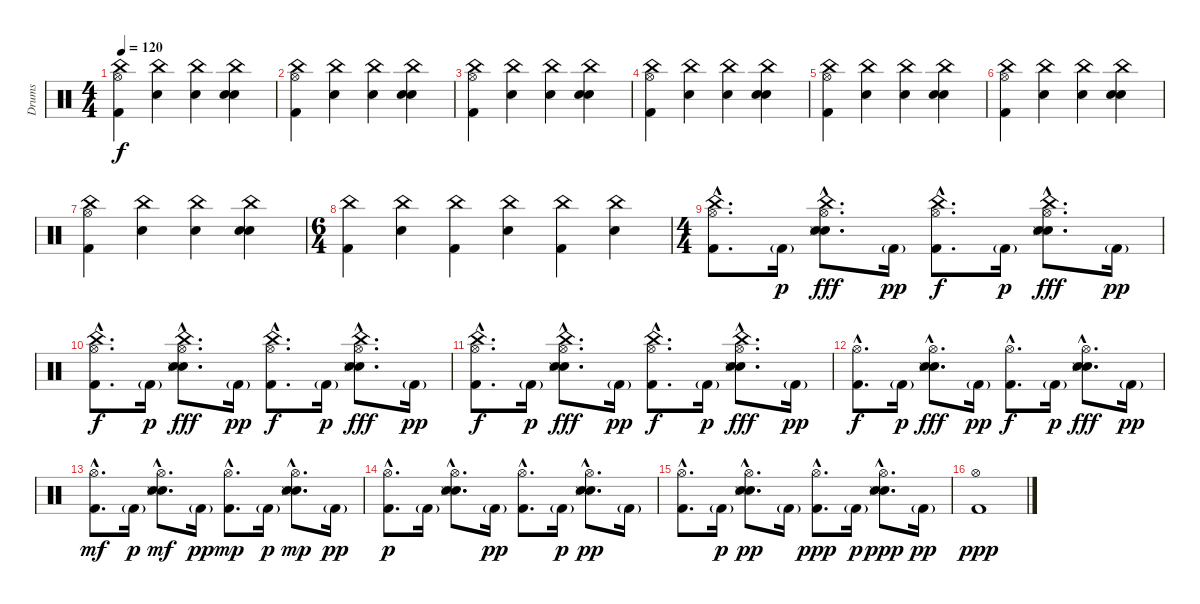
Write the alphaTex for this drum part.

\track ("Drums" "Drums") {instrument percussion}
\staff {score}
\articulation defaults
\ts (4 4)
\tempo 120
\clef neutral
\ks c
("China (hit)" "Kick (hit) 2" "Hi-Hat (open)").4{dy f} ("China (hit)" "Electric Snare (hit)").4 ("China (hit)" "Electric Snare (hit)").4 ("China (hit)" "Electric Snare (hit)" "Hand Clap (hit)").4 |
("China (hit)" "Kick (hit) 2" "Hi-Hat (open)").4 ("China (hit)" "Electric Snare (hit)").4 ("China (hit)" "Electric Snare (hit)").4 ("China (hit)" "Electric Snare (hit)" "Hand Clap (hit)").4 |
("China (hit)" "Kick (hit) 2" "Hi-Hat (open)").4 ("China (hit)" "Electric Snare (hit)").4 ("China (hit)" "Electric Snare (hit)").4 ("China (hit)" "Electric Snare (hit)" "Hand Clap (hit)").4 |
("China (hit)" "Kick (hit) 2" "Hi-Hat (open)").4 ("China (hit)" "Electric Snare (hit)").4 ("China (hit)" "Electric Snare (hit)").4 ("China (hit)" "Electric Snare (hit)" "Hand Clap (hit)").4 |
("China (hit)" "Kick (hit) 2" "Hi-Hat (open)").4 ("China (hit)" "Electric Snare (hit)").4 ("China (hit)" "Electric Snare (hit)").4 ("China (hit)" "Electric Snare (hit)" "Hand Clap (hit)").4 |
("China (hit)" "Kick (hit) 2" "Hi-Hat (open)").4 ("China (hit)" "Electric Snare (hit)").4 ("China (hit)" "Electric Snare (hit)").4 ("China (hit)" "Electric Snare (hit)" "Hand Clap (hit)").4 |
("China (hit)" "Kick (hit) 2" "Hi-Hat (open)").4 ("China (hit)" "Electric Snare (hit)").4 ("China (hit)" "Electric Snare (hit)").4 ("China (hit)" "Electric Snare (hit)" "Hand Clap (hit)").4 |
\ts (6 4)
("China (hit)" "Kick (hit) 2").4 ("China (hit)" "Electric Snare (hit)").4 ("China (hit)" "Kick (hit) 2").4 ("China (hit)" "Electric Snare (hit)").4 ("China (hit)" "Kick (hit) 2").4 ("China (hit)" "Electric Snare (hit)").4 |
\ts (4 4)
("Kick (hit) 2"{hac} "Hi-Hat (open)"{hac} "China (hit)"{hac}).8{d} "Kick (hit) 2"{g}.16{dy p} ("Hand Clap (hit)"{hac} "Electric Snare (hit)"{hac} "Hi-Hat (open)"{hac} "Snare (side stick) 3"{hac} "China (hit)"{hac}).8{d dy fff} "Kick (hit) 2"{g}.16{dy pp} ("Kick (hit) 2"{hac} "Hi-Hat (open)"{hac} "China (hit)"{hac}).8{d dy f} "Kick (hit) 2"{g}.16{dy p} ("Hand Clap (hit)"{hac} "Electric Snare (hit)"{hac} "Hi-Hat (open)"{hac} "Snare (side stick) 3"{hac} "China (hit)"{hac}).8{d dy fff} "Kick (hit) 2"{g}.16{dy pp} |
("Kick (hit) 2"{hac} "Hi-Hat (open)"{hac} "China (hit)"{hac}).8{d dy f} "Kick (hit) 2"{g}.16{dy p} ("Hand Clap (hit)"{hac} "Electric Snare (hit)"{hac} "Hi-Hat (open)"{hac} "Snare (side stick) 3"{hac} "China (hit)"{hac}).8{d dy fff} "Kick (hit) 2"{g}.16{dy pp} ("Kick (hit) 2"{hac} "Hi-Hat (open)"{hac} "China (hit)"{hac}).8{d dy f} "Kick (hit) 2"{g}.16{dy p} ("Hand Clap (hit)"{hac} "Electric Snare (hit)"{hac} "Hi-Hat (open)"{hac} "Snare (side stick) 3"{hac} "China (hit)"{hac}).8{d dy fff} "Kick (hit) 2"{g}.16{dy pp} |
("Kick (hit) 2"{hac} "Hi-Hat (open)"{hac} "China (hit)"{hac}).8{d dy f} "Kick (hit) 2"{g}.16{dy p} ("Hand Clap (hit)"{hac} "Electric Snare (hit)"{hac} "Hi-Hat (open)"{hac} "Snare (side stick) 3"{hac} "China (hit)"{hac}).8{d dy fff} "Kick (hit) 2"{g}.16{dy pp} ("Kick (hit) 2"{hac} "Hi-Hat (open)"{hac} "China (hit)"{hac}).8{d dy f} "Kick (hit) 2"{g}.16{dy p} ("Hand Clap (hit)"{hac} "Electric Snare (hit)"{hac} "Hi-Hat (open)"{hac} "Snare (side stick) 3"{hac} "China (hit)"{hac}).8{d dy fff} "Kick (hit) 2"{g}.16{dy pp} |
("Kick (hit) 2"{hac} "Hi-Hat (open)"{hac}).8{d dy f} "Kick (hit) 2"{g}.16{dy p} ("Hand Clap (hit)"{hac} "Electric Snare (hit)"{hac} "Hi-Hat (open)"{hac} "Snare (side stick) 3"{hac}).8{d dy fff} "Kick (hit) 2"{g}.16{dy pp} ("Kick (hit) 2"{hac} "Hi-Hat (open)"{hac}).8{d dy f} "Kick (hit) 2"{g}.16{dy p} ("Hand Clap (hit)"{hac} "Electric Snare (hit)"{hac} "Hi-Hat (open)"{hac} "Snare (side stick) 3"{hac}).8{d dy fff} "Kick (hit) 2"{g}.16{dy pp} |
("Kick (hit) 2"{hac} "Hi-Hat (open)"{hac}).8{d dy mf} "Kick (hit) 2"{g}.16{dy p} ("Hand Clap (hit)"{hac} "Electric Snare (hit)"{hac} "Hi-Hat (open)"{hac} "Snare (side stick) 3"{hac}).8{d dy mf} "Kick (hit) 2"{g}.16{dy pp} ("Kick (hit) 2"{hac} "Hi-Hat (open)"{hac}).8{d dy mp} "Kick (hit) 2"{g}.16{dy p} ("Hand Clap (hit)"{hac} "Electric Snare (hit)"{hac} "Hi-Hat (open)"{hac} "Snare (side stick) 3"{hac}).8{d dy mp} "Kick (hit) 2"{g}.16{dy pp} |
("Kick (hit) 2"{hac} "Hi-Hat (open)"{hac}).8{d dy p} "Kick (hit) 2"{g}.16 ("Hand Clap (hit)"{hac} "Electric Snare (hit)"{hac} "Hi-Hat (open)"{hac} "Snare (side stick) 3"{hac}).8{d} "Kick (hit) 2"{g}.16{dy pp} ("Kick (hit) 2"{hac} "Hi-Hat (open)"{hac}).8{d} "Kick (hit) 2"{g}.16{dy p} ("Hand Clap (hit)"{hac} "Electric Snare (hit)"{hac} "Hi-Hat (open)"{hac} "Snare (side stick) 3"{hac}).8{d dy pp} "Kick (hit) 2"{g}.16 |
("Kick (hit) 2"{hac} "Hi-Hat (open)"{hac}).8{d} "Kick (hit) 2"{g}.16{dy p} ("Hand Clap (hit)"{hac} "Electric Snare (hit)"{hac} "Hi-Hat (open)"{hac} "Snare (side stick) 3"{hac}).8{d dy pp} "Kick (hit) 2"{g}.16 ("Kick (hit) 2"{hac} "Hi-Hat (open)"{hac}).8{d dy ppp} "Kick (hit) 2"{g}.16{dy p} ("Hand Clap (hit)"{hac} "Electric Snare (hit)"{hac} "Hi-Hat (open)"{hac} "Snare (side stick) 3"{hac}).8{d dy ppp} "Kick (hit) 2"{g}.16{dy pp} |
("Kick (hit) 2" "Hi-Hat (open)").1{dy ppp}
